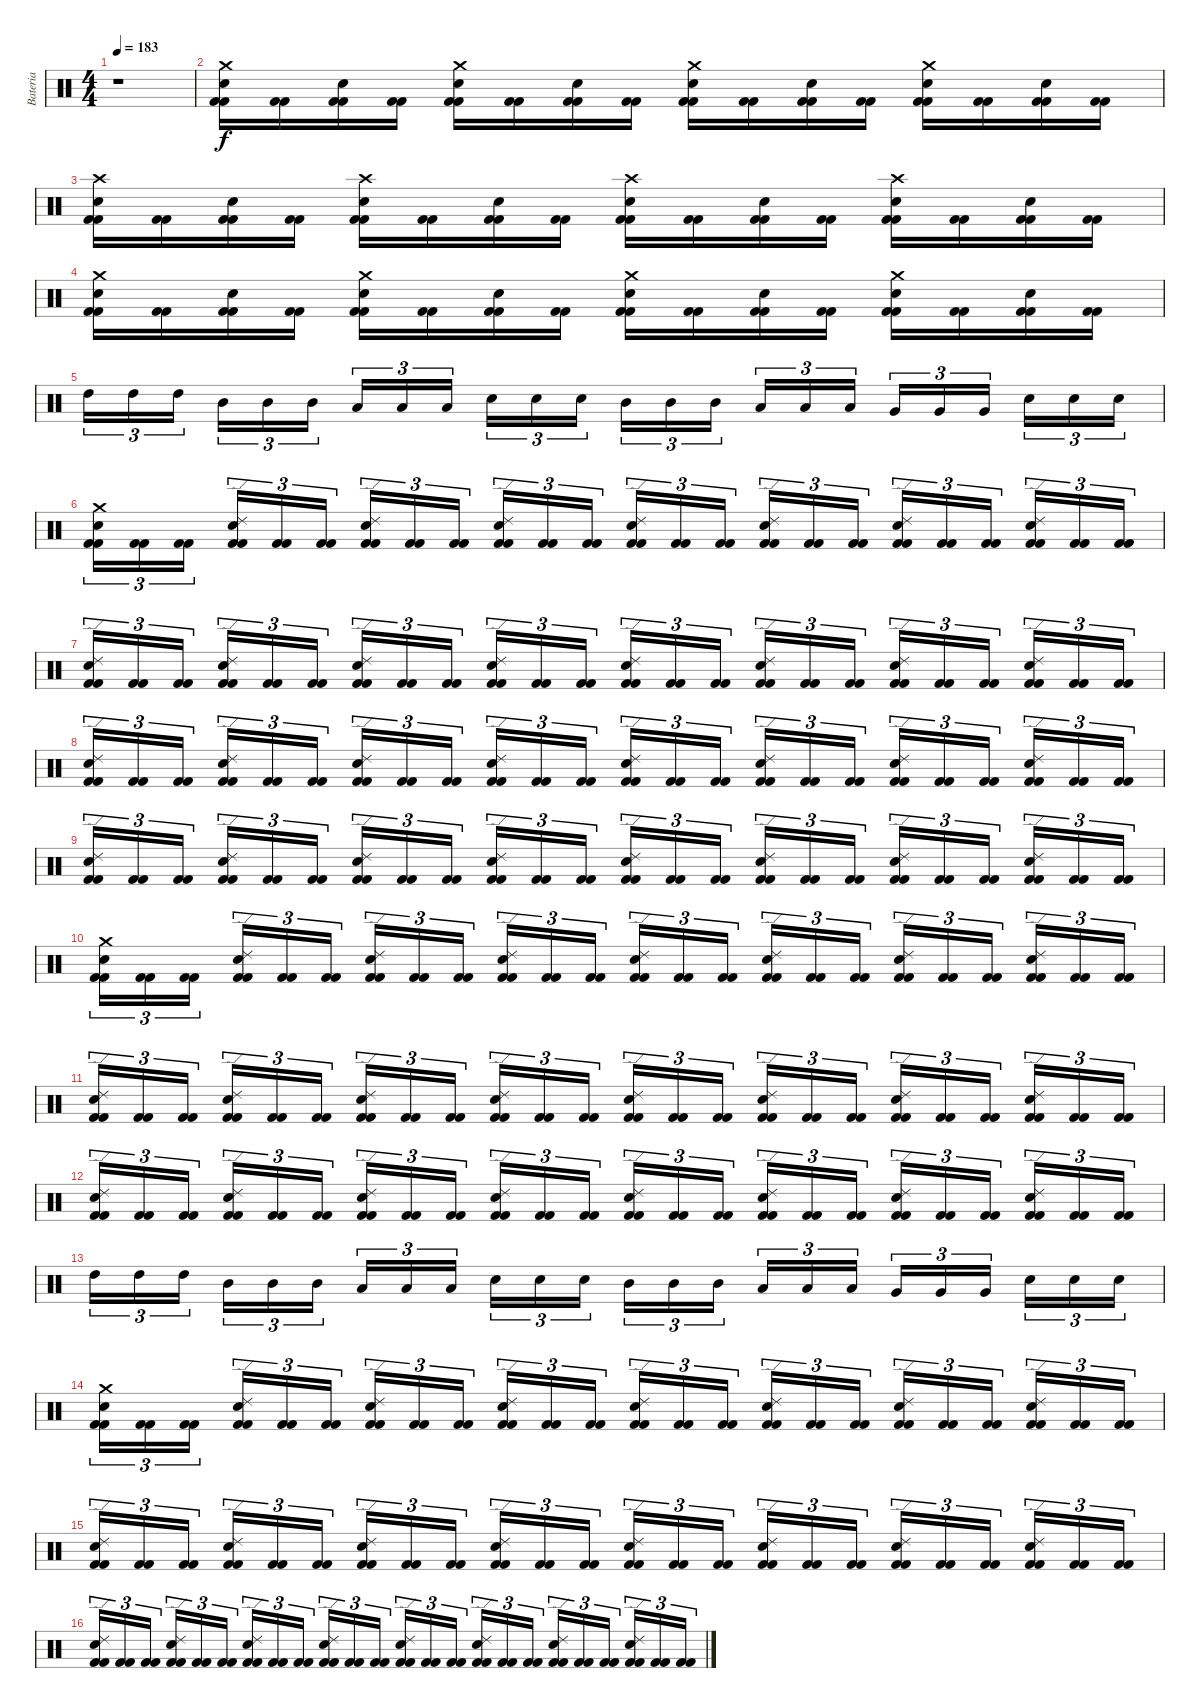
\track ("Bateria" "Bateria") {instrument percussion}
\staff {score}
\articulation defaults
\ts (4 4)
\tempo 183
\clef neutral
\ks c
r.1{dy f} |
("Kick (hit) 2" "Kick (hit) 2" "Snare (hit) 2" "Crash medium (hit)").16 ("Kick (hit) 2" "Kick (hit) 2").16 ("Kick (hit) 2" "Kick (hit) 2" "Snare (hit) 2").16 ("Kick (hit) 2" "Kick (hit) 2").16 ("Kick (hit) 2" "Kick (hit) 2" "Snare (hit) 2" "Crash medium (hit)").16 ("Kick (hit) 2" "Kick (hit) 2").16 ("Kick (hit) 2" "Kick (hit) 2" "Snare (hit) 2").16 ("Kick (hit) 2" "Kick (hit) 2").16 ("Kick (hit) 2" "Kick (hit) 2" "Snare (hit) 2" "Crash medium (hit)").16 ("Kick (hit) 2" "Kick (hit) 2").16 ("Kick (hit) 2" "Kick (hit) 2" "Snare (hit) 2").16 ("Kick (hit) 2" "Kick (hit) 2").16 ("Kick (hit) 2" "Kick (hit) 2" "Snare (hit) 2" "Crash medium (hit)").16 ("Kick (hit) 2" "Kick (hit) 2").16 ("Kick (hit) 2" "Kick (hit) 2" "Snare (hit) 2").16 ("Kick (hit) 2" "Kick (hit) 2").16 |
("Kick (hit) 2" "Kick (hit) 2" "Snare (hit) 2" "Crash high (hit)").16 ("Kick (hit) 2" "Kick (hit) 2").16 ("Kick (hit) 2" "Kick (hit) 2" "Snare (hit) 2").16 ("Kick (hit) 2" "Kick (hit) 2").16 ("Kick (hit) 2" "Kick (hit) 2" "Snare (hit) 2" "Crash high (hit)").16 ("Kick (hit) 2" "Kick (hit) 2").16 ("Kick (hit) 2" "Kick (hit) 2" "Snare (hit) 2").16 ("Kick (hit) 2" "Kick (hit) 2").16 ("Kick (hit) 2" "Kick (hit) 2" "Snare (hit) 2" "Crash high (hit)").16 ("Kick (hit) 2" "Kick (hit) 2").16 ("Kick (hit) 2" "Kick (hit) 2" "Snare (hit) 2").16 ("Kick (hit) 2" "Kick (hit) 2").16 ("Kick (hit) 2" "Kick (hit) 2" "Snare (hit) 2" "Crash high (hit)").16 ("Kick (hit) 2" "Kick (hit) 2").16 ("Kick (hit) 2" "Kick (hit) 2" "Snare (hit) 2").16 ("Kick (hit) 2" "Kick (hit) 2").16 |
("Kick (hit) 2" "Kick (hit) 2" "Snare (hit) 2" "Crash medium (hit)").16 ("Kick (hit) 2" "Kick (hit) 2").16 ("Kick (hit) 2" "Kick (hit) 2" "Snare (hit) 2").16 ("Kick (hit) 2" "Kick (hit) 2").16 ("Kick (hit) 2" "Kick (hit) 2" "Snare (hit) 2" "Crash medium (hit)").16 ("Kick (hit) 2" "Kick (hit) 2").16 ("Kick (hit) 2" "Kick (hit) 2" "Snare (hit) 2").16 ("Kick (hit) 2" "Kick (hit) 2").16 ("Kick (hit) 2" "Kick (hit) 2" "Snare (hit) 2" "Crash medium (hit)").16 ("Kick (hit) 2" "Kick (hit) 2").16 ("Kick (hit) 2" "Kick (hit) 2" "Snare (hit) 2").16 ("Kick (hit) 2" "Kick (hit) 2").16 ("Kick (hit) 2" "Kick (hit) 2" "Snare (hit) 2" "Crash medium (hit)").16 ("Kick (hit) 2" "Kick (hit) 2").16 ("Kick (hit) 2" "Kick (hit) 2" "Snare (hit) 2").16 ("Kick (hit) 2" "Kick (hit) 2").16 |
"High Tom (hit)".16{tu (3 2)} "High Tom (hit)".16{tu (3 2)} "High Tom (hit)".16{tu (3 2)} "Mid Tom (hit)".16{tu (3 2)} "Mid Tom (hit)".16{tu (3 2)} "Mid Tom (hit)".16{tu (3 2)} "Low Tom (hit)".16{tu (3 2)} "Low Tom (hit)".16{tu (3 2)} "Low Tom (hit)".16{tu (3 2)} "Snare (hit) 2".16{tu (3 2)} "Snare (hit) 2".16{tu (3 2)} "Snare (hit) 2".16{tu (3 2)} "Mid Tom (hit)".16{tu (3 2)} "Mid Tom (hit)".16{tu (3 2)} "Mid Tom (hit)".16{tu (3 2)} "Low Tom (hit)".16{tu (3 2)} "Low Tom (hit)".16{tu (3 2)} "Low Tom (hit)".16{tu (3 2)} "Very Low Tom (hit)".16{tu (3 2)} "Very Low Tom (hit)".16{tu (3 2)} "Very Low Tom (hit)".16{tu (3 2)} "Snare (hit) 2".16{tu (3 2)} "Snare (hit) 2".16{tu (3 2)} "Snare (hit) 2".16{tu (3 2)} |
("Kick (hit) 2" "Kick (hit) 2" "Snare (hit) 2" "Crash medium (hit)").16{tu (3 2)} ("Kick (hit) 2" "Kick (hit) 2").16{tu (3 2)} ("Kick (hit) 2" "Kick (hit) 2").16{tu (3 2)} ("Kick (hit) 2" "Kick (hit) 2" "Snare (hit) 2" "Ride (edge) 2").16{tu (3 2)} ("Kick (hit) 2" "Kick (hit) 2").16{tu (3 2)} ("Kick (hit) 2" "Kick (hit) 2").16{tu (3 2)} ("Kick (hit) 2" "Kick (hit) 2" "Snare (hit) 2" "Ride (edge) 2").16{tu (3 2)} ("Kick (hit) 2" "Kick (hit) 2").16{tu (3 2)} ("Kick (hit) 2" "Kick (hit) 2").16{tu (3 2)} ("Kick (hit) 2" "Kick (hit) 2" "Snare (hit) 2" "Ride (edge) 2").16{tu (3 2)} ("Kick (hit) 2" "Kick (hit) 2").16{tu (3 2)} ("Kick (hit) 2" "Kick (hit) 2").16{tu (3 2)} ("Kick (hit) 2" "Kick (hit) 2" "Snare (hit) 2" "Ride (edge) 2").16{tu (3 2)} ("Kick (hit) 2" "Kick (hit) 2").16{tu (3 2)} ("Kick (hit) 2" "Kick (hit) 2").16{tu (3 2)} ("Kick (hit) 2" "Kick (hit) 2" "Snare (hit) 2" "Ride (edge) 2").16{tu (3 2)} ("Kick (hit) 2" "Kick (hit) 2").16{tu (3 2)} ("Kick (hit) 2" "Kick (hit) 2").16{tu (3 2)} ("Kick (hit) 2" "Kick (hit) 2" "Snare (hit) 2" "Ride (edge) 2").16{tu (3 2)} ("Kick (hit) 2" "Kick (hit) 2").16{tu (3 2)} ("Kick (hit) 2" "Kick (hit) 2").16{tu (3 2)} ("Kick (hit) 2" "Kick (hit) 2" "Snare (hit) 2" "Ride (edge) 2").16{tu (3 2)} ("Kick (hit) 2" "Kick (hit) 2").16{tu (3 2)} ("Kick (hit) 2" "Kick (hit) 2").16{tu (3 2)} |
("Kick (hit) 2" "Kick (hit) 2" "Snare (hit) 2" "Ride (edge) 2").16{tu (3 2)} ("Kick (hit) 2" "Kick (hit) 2").16{tu (3 2)} ("Kick (hit) 2" "Kick (hit) 2").16{tu (3 2)} ("Kick (hit) 2" "Kick (hit) 2" "Snare (hit) 2" "Ride (edge) 2").16{tu (3 2)} ("Kick (hit) 2" "Kick (hit) 2").16{tu (3 2)} ("Kick (hit) 2" "Kick (hit) 2").16{tu (3 2)} ("Kick (hit) 2" "Kick (hit) 2" "Snare (hit) 2" "Ride (edge) 2").16{tu (3 2)} ("Kick (hit) 2" "Kick (hit) 2").16{tu (3 2)} ("Kick (hit) 2" "Kick (hit) 2").16{tu (3 2)} ("Kick (hit) 2" "Kick (hit) 2" "Snare (hit) 2" "Ride (edge) 2").16{tu (3 2)} ("Kick (hit) 2" "Kick (hit) 2").16{tu (3 2)} ("Kick (hit) 2" "Kick (hit) 2").16{tu (3 2)} ("Kick (hit) 2" "Kick (hit) 2" "Snare (hit) 2" "Ride (edge) 2").16{tu (3 2)} ("Kick (hit) 2" "Kick (hit) 2").16{tu (3 2)} ("Kick (hit) 2" "Kick (hit) 2").16{tu (3 2)} ("Kick (hit) 2" "Kick (hit) 2" "Snare (hit) 2" "Ride (edge) 2").16{tu (3 2)} ("Kick (hit) 2" "Kick (hit) 2").16{tu (3 2)} ("Kick (hit) 2" "Kick (hit) 2").16{tu (3 2)} ("Kick (hit) 2" "Kick (hit) 2" "Snare (hit) 2" "Ride (edge) 2").16{tu (3 2)} ("Kick (hit) 2" "Kick (hit) 2").16{tu (3 2)} ("Kick (hit) 2" "Kick (hit) 2").16{tu (3 2)} ("Kick (hit) 2" "Kick (hit) 2" "Snare (hit) 2" "Ride (edge) 2").16{tu (3 2)} ("Kick (hit) 2" "Kick (hit) 2").16{tu (3 2)} ("Kick (hit) 2" "Kick (hit) 2").16{tu (3 2)} |
("Kick (hit) 2" "Kick (hit) 2" "Snare (hit) 2" "Ride (edge) 2").16{tu (3 2)} ("Kick (hit) 2" "Kick (hit) 2").16{tu (3 2)} ("Kick (hit) 2" "Kick (hit) 2").16{tu (3 2)} ("Kick (hit) 2" "Kick (hit) 2" "Snare (hit) 2" "Ride (edge) 2").16{tu (3 2)} ("Kick (hit) 2" "Kick (hit) 2").16{tu (3 2)} ("Kick (hit) 2" "Kick (hit) 2").16{tu (3 2)} ("Kick (hit) 2" "Kick (hit) 2" "Snare (hit) 2" "Ride (edge) 2").16{tu (3 2)} ("Kick (hit) 2" "Kick (hit) 2").16{tu (3 2)} ("Kick (hit) 2" "Kick (hit) 2").16{tu (3 2)} ("Kick (hit) 2" "Kick (hit) 2" "Snare (hit) 2" "Ride (edge) 2").16{tu (3 2)} ("Kick (hit) 2" "Kick (hit) 2").16{tu (3 2)} ("Kick (hit) 2" "Kick (hit) 2").16{tu (3 2)} ("Kick (hit) 2" "Kick (hit) 2" "Snare (hit) 2" "Ride (edge) 2").16{tu (3 2)} ("Kick (hit) 2" "Kick (hit) 2").16{tu (3 2)} ("Kick (hit) 2" "Kick (hit) 2").16{tu (3 2)} ("Kick (hit) 2" "Kick (hit) 2" "Snare (hit) 2" "Ride (edge) 2").16{tu (3 2)} ("Kick (hit) 2" "Kick (hit) 2").16{tu (3 2)} ("Kick (hit) 2" "Kick (hit) 2").16{tu (3 2)} ("Kick (hit) 2" "Kick (hit) 2" "Snare (hit) 2" "Ride (edge) 2").16{tu (3 2)} ("Kick (hit) 2" "Kick (hit) 2").16{tu (3 2)} ("Kick (hit) 2" "Kick (hit) 2").16{tu (3 2)} ("Kick (hit) 2" "Kick (hit) 2" "Snare (hit) 2" "Ride (edge) 2").16{tu (3 2)} ("Kick (hit) 2" "Kick (hit) 2").16{tu (3 2)} ("Kick (hit) 2" "Kick (hit) 2").16{tu (3 2)} |
("Kick (hit) 2" "Kick (hit) 2" "Snare (hit) 2" "Ride (edge) 2").16{tu (3 2)} ("Kick (hit) 2" "Kick (hit) 2").16{tu (3 2)} ("Kick (hit) 2" "Kick (hit) 2").16{tu (3 2)} ("Kick (hit) 2" "Kick (hit) 2" "Snare (hit) 2" "Ride (edge) 2").16{tu (3 2)} ("Kick (hit) 2" "Kick (hit) 2").16{tu (3 2)} ("Kick (hit) 2" "Kick (hit) 2").16{tu (3 2)} ("Kick (hit) 2" "Kick (hit) 2" "Snare (hit) 2" "Ride (edge) 2").16{tu (3 2)} ("Kick (hit) 2" "Kick (hit) 2").16{tu (3 2)} ("Kick (hit) 2" "Kick (hit) 2").16{tu (3 2)} ("Kick (hit) 2" "Kick (hit) 2" "Snare (hit) 2" "Ride (edge) 2").16{tu (3 2)} ("Kick (hit) 2" "Kick (hit) 2").16{tu (3 2)} ("Kick (hit) 2" "Kick (hit) 2").16{tu (3 2)} ("Kick (hit) 2" "Kick (hit) 2" "Snare (hit) 2" "Ride (edge) 2").16{tu (3 2)} ("Kick (hit) 2" "Kick (hit) 2").16{tu (3 2)} ("Kick (hit) 2" "Kick (hit) 2").16{tu (3 2)} ("Kick (hit) 2" "Kick (hit) 2" "Snare (hit) 2" "Ride (edge) 2").16{tu (3 2)} ("Kick (hit) 2" "Kick (hit) 2").16{tu (3 2)} ("Kick (hit) 2" "Kick (hit) 2").16{tu (3 2)} ("Kick (hit) 2" "Kick (hit) 2" "Snare (hit) 2" "Ride (edge) 2").16{tu (3 2)} ("Kick (hit) 2" "Kick (hit) 2").16{tu (3 2)} ("Kick (hit) 2" "Kick (hit) 2").16{tu (3 2)} ("Kick (hit) 2" "Kick (hit) 2" "Snare (hit) 2" "Ride (edge) 2").16{tu (3 2)} ("Kick (hit) 2" "Kick (hit) 2").16{tu (3 2)} ("Kick (hit) 2" "Kick (hit) 2").16{tu (3 2)} |
("Kick (hit) 2" "Kick (hit) 2" "Snare (hit) 2" "Crash medium (hit)").16{tu (3 2)} ("Kick (hit) 2" "Kick (hit) 2").16{tu (3 2)} ("Kick (hit) 2" "Kick (hit) 2").16{tu (3 2)} ("Kick (hit) 2" "Kick (hit) 2" "Snare (hit) 2" "Ride (edge) 2").16{tu (3 2)} ("Kick (hit) 2" "Kick (hit) 2").16{tu (3 2)} ("Kick (hit) 2" "Kick (hit) 2").16{tu (3 2)} ("Kick (hit) 2" "Kick (hit) 2" "Snare (hit) 2" "Ride (edge) 2").16{tu (3 2)} ("Kick (hit) 2" "Kick (hit) 2").16{tu (3 2)} ("Kick (hit) 2" "Kick (hit) 2").16{tu (3 2)} ("Kick (hit) 2" "Kick (hit) 2" "Snare (hit) 2" "Ride (edge) 2").16{tu (3 2)} ("Kick (hit) 2" "Kick (hit) 2").16{tu (3 2)} ("Kick (hit) 2" "Kick (hit) 2").16{tu (3 2)} ("Kick (hit) 2" "Kick (hit) 2" "Snare (hit) 2" "Ride (edge) 2").16{tu (3 2)} ("Kick (hit) 2" "Kick (hit) 2").16{tu (3 2)} ("Kick (hit) 2" "Kick (hit) 2").16{tu (3 2)} ("Kick (hit) 2" "Kick (hit) 2" "Snare (hit) 2" "Ride (edge) 2").16{tu (3 2)} ("Kick (hit) 2" "Kick (hit) 2").16{tu (3 2)} ("Kick (hit) 2" "Kick (hit) 2").16{tu (3 2)} ("Kick (hit) 2" "Kick (hit) 2" "Snare (hit) 2" "Ride (edge) 2").16{tu (3 2)} ("Kick (hit) 2" "Kick (hit) 2").16{tu (3 2)} ("Kick (hit) 2" "Kick (hit) 2").16{tu (3 2)} ("Kick (hit) 2" "Kick (hit) 2" "Snare (hit) 2" "Ride (edge) 2").16{tu (3 2)} ("Kick (hit) 2" "Kick (hit) 2").16{tu (3 2)} ("Kick (hit) 2" "Kick (hit) 2").16{tu (3 2)} |
("Kick (hit) 2" "Kick (hit) 2" "Snare (hit) 2" "Ride (edge) 2").16{tu (3 2)} ("Kick (hit) 2" "Kick (hit) 2").16{tu (3 2)} ("Kick (hit) 2" "Kick (hit) 2").16{tu (3 2)} ("Kick (hit) 2" "Kick (hit) 2" "Snare (hit) 2" "Ride (edge) 2").16{tu (3 2)} ("Kick (hit) 2" "Kick (hit) 2").16{tu (3 2)} ("Kick (hit) 2" "Kick (hit) 2").16{tu (3 2)} ("Kick (hit) 2" "Kick (hit) 2" "Snare (hit) 2" "Ride (edge) 2").16{tu (3 2)} ("Kick (hit) 2" "Kick (hit) 2").16{tu (3 2)} ("Kick (hit) 2" "Kick (hit) 2").16{tu (3 2)} ("Kick (hit) 2" "Kick (hit) 2" "Snare (hit) 2" "Ride (edge) 2").16{tu (3 2)} ("Kick (hit) 2" "Kick (hit) 2").16{tu (3 2)} ("Kick (hit) 2" "Kick (hit) 2").16{tu (3 2)} ("Kick (hit) 2" "Kick (hit) 2" "Snare (hit) 2" "Ride (edge) 2").16{tu (3 2)} ("Kick (hit) 2" "Kick (hit) 2").16{tu (3 2)} ("Kick (hit) 2" "Kick (hit) 2").16{tu (3 2)} ("Kick (hit) 2" "Kick (hit) 2" "Snare (hit) 2" "Ride (edge) 2").16{tu (3 2)} ("Kick (hit) 2" "Kick (hit) 2").16{tu (3 2)} ("Kick (hit) 2" "Kick (hit) 2").16{tu (3 2)} ("Kick (hit) 2" "Kick (hit) 2" "Snare (hit) 2" "Ride (edge) 2").16{tu (3 2)} ("Kick (hit) 2" "Kick (hit) 2").16{tu (3 2)} ("Kick (hit) 2" "Kick (hit) 2").16{tu (3 2)} ("Kick (hit) 2" "Kick (hit) 2" "Snare (hit) 2" "Ride (edge) 2").16{tu (3 2)} ("Kick (hit) 2" "Kick (hit) 2").16{tu (3 2)} ("Kick (hit) 2" "Kick (hit) 2").16{tu (3 2)} |
("Kick (hit) 2" "Kick (hit) 2" "Snare (hit) 2" "Ride (edge) 2").16{tu (3 2)} ("Kick (hit) 2" "Kick (hit) 2").16{tu (3 2)} ("Kick (hit) 2" "Kick (hit) 2").16{tu (3 2)} ("Kick (hit) 2" "Kick (hit) 2" "Snare (hit) 2" "Ride (edge) 2").16{tu (3 2)} ("Kick (hit) 2" "Kick (hit) 2").16{tu (3 2)} ("Kick (hit) 2" "Kick (hit) 2").16{tu (3 2)} ("Kick (hit) 2" "Kick (hit) 2" "Snare (hit) 2" "Ride (edge) 2").16{tu (3 2)} ("Kick (hit) 2" "Kick (hit) 2").16{tu (3 2)} ("Kick (hit) 2" "Kick (hit) 2").16{tu (3 2)} ("Kick (hit) 2" "Kick (hit) 2" "Snare (hit) 2" "Ride (edge) 2").16{tu (3 2)} ("Kick (hit) 2" "Kick (hit) 2").16{tu (3 2)} ("Kick (hit) 2" "Kick (hit) 2").16{tu (3 2)} ("Kick (hit) 2" "Kick (hit) 2" "Snare (hit) 2" "Ride (edge) 2").16{tu (3 2)} ("Kick (hit) 2" "Kick (hit) 2").16{tu (3 2)} ("Kick (hit) 2" "Kick (hit) 2").16{tu (3 2)} ("Kick (hit) 2" "Kick (hit) 2" "Snare (hit) 2" "Ride (edge) 2").16{tu (3 2)} ("Kick (hit) 2" "Kick (hit) 2").16{tu (3 2)} ("Kick (hit) 2" "Kick (hit) 2").16{tu (3 2)} ("Kick (hit) 2" "Kick (hit) 2" "Snare (hit) 2" "Ride (edge) 2").16{tu (3 2)} ("Kick (hit) 2" "Kick (hit) 2").16{tu (3 2)} ("Kick (hit) 2" "Kick (hit) 2").16{tu (3 2)} ("Kick (hit) 2" "Kick (hit) 2" "Snare (hit) 2" "Ride (edge) 2").16{tu (3 2)} ("Kick (hit) 2" "Kick (hit) 2").16{tu (3 2)} ("Kick (hit) 2" "Kick (hit) 2").16{tu (3 2)} |
"High Tom (hit)".16{tu (3 2)} "High Tom (hit)".16{tu (3 2)} "High Tom (hit)".16{tu (3 2)} "Mid Tom (hit)".16{tu (3 2)} "Mid Tom (hit)".16{tu (3 2)} "Mid Tom (hit)".16{tu (3 2)} "Low Tom (hit)".16{tu (3 2)} "Low Tom (hit)".16{tu (3 2)} "Low Tom (hit)".16{tu (3 2)} "Snare (hit) 2".16{tu (3 2)} "Snare (hit) 2".16{tu (3 2)} "Snare (hit) 2".16{tu (3 2)} "Mid Tom (hit)".16{tu (3 2)} "Mid Tom (hit)".16{tu (3 2)} "Mid Tom (hit)".16{tu (3 2)} "Low Tom (hit)".16{tu (3 2)} "Low Tom (hit)".16{tu (3 2)} "Low Tom (hit)".16{tu (3 2)} "Very Low Tom (hit)".16{tu (3 2)} "Very Low Tom (hit)".16{tu (3 2)} "Very Low Tom (hit)".16{tu (3 2)} "Snare (hit) 2".16{tu (3 2)} "Snare (hit) 2".16{tu (3 2)} "Snare (hit) 2".16{tu (3 2)} |
("Kick (hit) 2" "Kick (hit) 2" "Snare (hit) 2" "Crash medium (hit)").16{tu (3 2)} ("Kick (hit) 2" "Kick (hit) 2").16{tu (3 2)} ("Kick (hit) 2" "Kick (hit) 2").16{tu (3 2)} ("Kick (hit) 2" "Kick (hit) 2" "Snare (hit) 2" "Ride (edge) 2").16{tu (3 2)} ("Kick (hit) 2" "Kick (hit) 2").16{tu (3 2)} ("Kick (hit) 2" "Kick (hit) 2").16{tu (3 2)} ("Kick (hit) 2" "Kick (hit) 2" "Snare (hit) 2" "Ride (edge) 2").16{tu (3 2)} ("Kick (hit) 2" "Kick (hit) 2").16{tu (3 2)} ("Kick (hit) 2" "Kick (hit) 2").16{tu (3 2)} ("Kick (hit) 2" "Kick (hit) 2" "Snare (hit) 2" "Ride (edge) 2").16{tu (3 2)} ("Kick (hit) 2" "Kick (hit) 2").16{tu (3 2)} ("Kick (hit) 2" "Kick (hit) 2").16{tu (3 2)} ("Kick (hit) 2" "Kick (hit) 2" "Snare (hit) 2" "Ride (edge) 2").16{tu (3 2)} ("Kick (hit) 2" "Kick (hit) 2").16{tu (3 2)} ("Kick (hit) 2" "Kick (hit) 2").16{tu (3 2)} ("Kick (hit) 2" "Kick (hit) 2" "Snare (hit) 2" "Ride (edge) 2").16{tu (3 2)} ("Kick (hit) 2" "Kick (hit) 2").16{tu (3 2)} ("Kick (hit) 2" "Kick (hit) 2").16{tu (3 2)} ("Kick (hit) 2" "Kick (hit) 2" "Snare (hit) 2" "Ride (edge) 2").16{tu (3 2)} ("Kick (hit) 2" "Kick (hit) 2").16{tu (3 2)} ("Kick (hit) 2" "Kick (hit) 2").16{tu (3 2)} ("Kick (hit) 2" "Kick (hit) 2" "Snare (hit) 2" "Ride (edge) 2").16{tu (3 2)} ("Kick (hit) 2" "Kick (hit) 2").16{tu (3 2)} ("Kick (hit) 2" "Kick (hit) 2").16{tu (3 2)} |
("Kick (hit) 2" "Kick (hit) 2" "Snare (hit) 2" "Ride (edge) 2").16{tu (3 2)} ("Kick (hit) 2" "Kick (hit) 2").16{tu (3 2)} ("Kick (hit) 2" "Kick (hit) 2").16{tu (3 2)} ("Kick (hit) 2" "Kick (hit) 2" "Snare (hit) 2" "Ride (edge) 2").16{tu (3 2)} ("Kick (hit) 2" "Kick (hit) 2").16{tu (3 2)} ("Kick (hit) 2" "Kick (hit) 2").16{tu (3 2)} ("Kick (hit) 2" "Kick (hit) 2" "Snare (hit) 2" "Ride (edge) 2").16{tu (3 2)} ("Kick (hit) 2" "Kick (hit) 2").16{tu (3 2)} ("Kick (hit) 2" "Kick (hit) 2").16{tu (3 2)} ("Kick (hit) 2" "Kick (hit) 2" "Snare (hit) 2" "Ride (edge) 2").16{tu (3 2)} ("Kick (hit) 2" "Kick (hit) 2").16{tu (3 2)} ("Kick (hit) 2" "Kick (hit) 2").16{tu (3 2)} ("Kick (hit) 2" "Kick (hit) 2" "Snare (hit) 2" "Ride (edge) 2").16{tu (3 2)} ("Kick (hit) 2" "Kick (hit) 2").16{tu (3 2)} ("Kick (hit) 2" "Kick (hit) 2").16{tu (3 2)} ("Kick (hit) 2" "Kick (hit) 2" "Snare (hit) 2" "Ride (edge) 2").16{tu (3 2)} ("Kick (hit) 2" "Kick (hit) 2").16{tu (3 2)} ("Kick (hit) 2" "Kick (hit) 2").16{tu (3 2)} ("Kick (hit) 2" "Kick (hit) 2" "Snare (hit) 2" "Ride (edge) 2").16{tu (3 2)} ("Kick (hit) 2" "Kick (hit) 2").16{tu (3 2)} ("Kick (hit) 2" "Kick (hit) 2").16{tu (3 2)} ("Kick (hit) 2" "Kick (hit) 2" "Snare (hit) 2" "Ride (edge) 2").16{tu (3 2)} ("Kick (hit) 2" "Kick (hit) 2").16{tu (3 2)} ("Kick (hit) 2" "Kick (hit) 2").16{tu (3 2)} |
("Kick (hit) 2" "Kick (hit) 2" "Snare (hit) 2" "Ride (edge) 2").16{tu (3 2)} ("Kick (hit) 2" "Kick (hit) 2").16{tu (3 2)} ("Kick (hit) 2" "Kick (hit) 2").16{tu (3 2)} ("Kick (hit) 2" "Kick (hit) 2" "Snare (hit) 2" "Ride (edge) 2").16{tu (3 2)} ("Kick (hit) 2" "Kick (hit) 2").16{tu (3 2)} ("Kick (hit) 2" "Kick (hit) 2").16{tu (3 2)} ("Kick (hit) 2" "Kick (hit) 2" "Snare (hit) 2" "Ride (edge) 2").16{tu (3 2)} ("Kick (hit) 2" "Kick (hit) 2").16{tu (3 2)} ("Kick (hit) 2" "Kick (hit) 2").16{tu (3 2)} ("Kick (hit) 2" "Kick (hit) 2" "Snare (hit) 2" "Ride (edge) 2").16{tu (3 2)} ("Kick (hit) 2" "Kick (hit) 2").16{tu (3 2)} ("Kick (hit) 2" "Kick (hit) 2").16{tu (3 2)} ("Kick (hit) 2" "Kick (hit) 2" "Snare (hit) 2" "Ride (edge) 2").16{tu (3 2)} ("Kick (hit) 2" "Kick (hit) 2").16{tu (3 2)} ("Kick (hit) 2" "Kick (hit) 2").16{tu (3 2)} ("Kick (hit) 2" "Kick (hit) 2" "Snare (hit) 2" "Ride (edge) 2").16{tu (3 2)} ("Kick (hit) 2" "Kick (hit) 2").16{tu (3 2)} ("Kick (hit) 2" "Kick (hit) 2").16{tu (3 2)} ("Kick (hit) 2" "Kick (hit) 2" "Snare (hit) 2" "Ride (edge) 2").16{tu (3 2)} ("Kick (hit) 2" "Kick (hit) 2").16{tu (3 2)} ("Kick (hit) 2" "Kick (hit) 2").16{tu (3 2)} ("Kick (hit) 2" "Kick (hit) 2" "Snare (hit) 2" "Ride (edge) 2").16{tu (3 2)} ("Kick (hit) 2" "Kick (hit) 2").16{tu (3 2)} ("Kick (hit) 2" "Kick (hit) 2").16{tu (3 2)}
